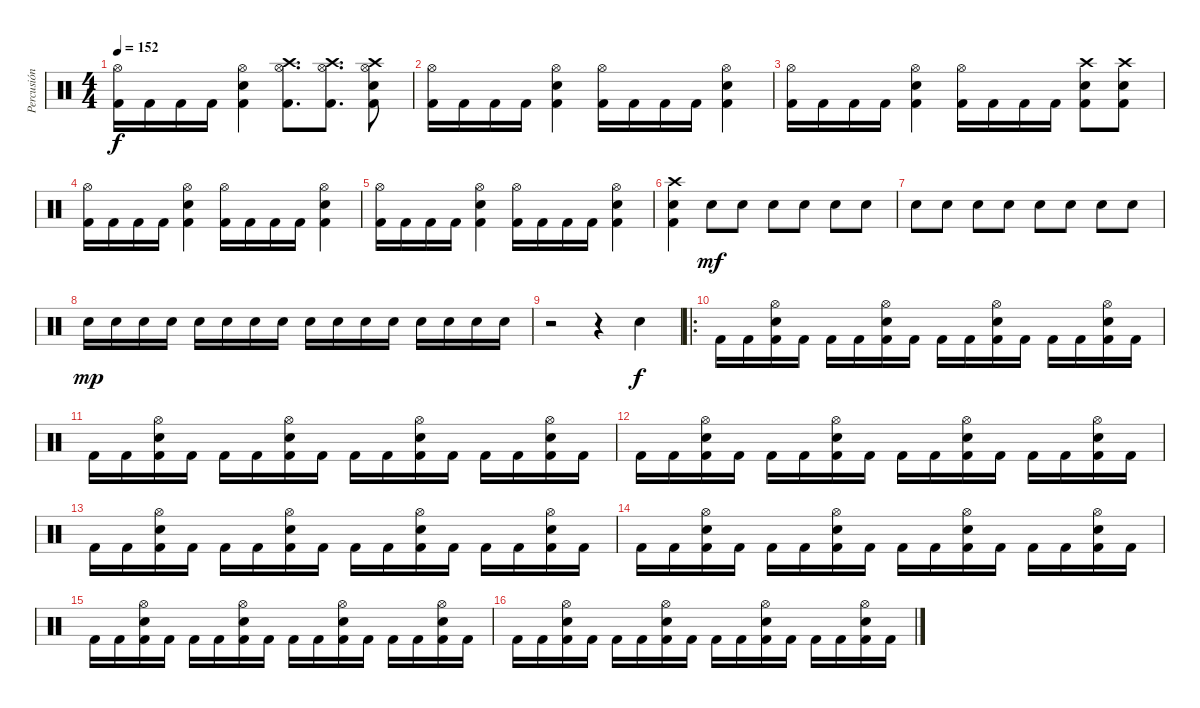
\track ("Percusión" "Percusión") {instrument percussion}
\staff {score}
\articulation defaults
\ts (4 4)
\tempo 152
\clef neutral
\ks c
("Hi-Hat (open)" "Kick (hit) 2").16{dy f} "Kick (hit) 2".16 "Kick (hit) 2".16 "Kick (hit) 2".16 ("Hi-Hat (open)" "Snare (hit) 2" "Kick (hit) 2").4 ("Crash high (hit)" "Hi-Hat (open)" "Kick (hit) 2").8{d} ("Crash high (hit)" "Hi-Hat (open)" "Kick (hit) 2").8{d} ("Crash high (hit)" "Hi-Hat (open)" "Snare (hit) 2" "Kick (hit) 2").8 |
("Hi-Hat (open)" "Kick (hit) 2").16 "Kick (hit) 2".16 "Kick (hit) 2".16 "Kick (hit) 2".16 ("Hi-Hat (open)" "Snare (hit) 2" "Kick (hit) 2").4 ("Hi-Hat (open)" "Kick (hit) 2").16 "Kick (hit) 2".16 "Kick (hit) 2".16 "Kick (hit) 2".16 ("Hi-Hat (open)" "Snare (hit) 2" "Kick (hit) 2").4 |
("Hi-Hat (open)" "Kick (hit) 2").16 "Kick (hit) 2".16 "Kick (hit) 2".16 "Kick (hit) 2".16 ("Hi-Hat (open)" "Snare (hit) 2" "Kick (hit) 2").4 ("Hi-Hat (open)" "Kick (hit) 2").16 "Kick (hit) 2".16 "Kick (hit) 2".16 "Kick (hit) 2".16 ("Crash high (hit)" "Snare (hit) 2" "Kick (hit) 2").8 ("Crash high (hit)" "Snare (hit) 2" "Kick (hit) 2").8 |
("Hi-Hat (open)" "Kick (hit) 2").16 "Kick (hit) 2".16 "Kick (hit) 2".16 "Kick (hit) 2".16 ("Hi-Hat (open)" "Snare (hit) 2" "Kick (hit) 2").4 ("Hi-Hat (open)" "Kick (hit) 2").16 "Kick (hit) 2".16 "Kick (hit) 2".16 "Kick (hit) 2".16 ("Hi-Hat (open)" "Snare (hit) 2" "Kick (hit) 2").4 |
("Hi-Hat (open)" "Kick (hit) 2").16 "Kick (hit) 2".16 "Kick (hit) 2".16 "Kick (hit) 2".16 ("Hi-Hat (open)" "Snare (hit) 2" "Kick (hit) 2").4 ("Hi-Hat (open)" "Kick (hit) 2").16 "Kick (hit) 2".16 "Kick (hit) 2".16 "Kick (hit) 2".16 ("Hi-Hat (open)" "Snare (hit) 2" "Kick (hit) 2").4 |
("Crash high (hit)" "Snare (hit) 2" "Kick (hit) 2").4 "Snare (hit) 2".8{dy mf} "Snare (hit) 2".8 "Snare (hit) 2".8 "Snare (hit) 2".8 "Snare (hit) 2".8 "Snare (hit) 2".8 |
"Snare (hit) 2".8 "Snare (hit) 2".8 "Snare (hit) 2".8 "Snare (hit) 2".8 "Snare (hit) 2".8 "Snare (hit) 2".8 "Snare (hit) 2".8 "Snare (hit) 2".8 |
"Snare (hit) 2".16{dy mp} "Snare (hit) 2".16 "Snare (hit) 2".16 "Snare (hit) 2".16 "Snare (hit) 2".16 "Snare (hit) 2".16 "Snare (hit) 2".16 "Snare (hit) 2".16 "Snare (hit) 2".16 "Snare (hit) 2".16 "Snare (hit) 2".16 "Snare (hit) 2".16 "Snare (hit) 2".16 "Snare (hit) 2".16 "Snare (hit) 2".16 "Snare (hit) 2".16 |
r.2 r.4 "Snare (hit) 2".4{dy f} |
\ro "Kick (hit) 2".16 "Kick (hit) 2".16
("Hi-Hat (open)" "Snare (hit) 2" "Kick (hit) 2").16 "Kick (hit) 2".16 "Kick (hit) 2".16 "Kick (hit) 2".16 ("Hi-Hat (open)" "Snare (hit) 2" "Kick (hit) 2").16 "Kick (hit) 2".16 "Kick (hit) 2".16 "Kick (hit) 2".16 ("Hi-Hat (open)" "Snare (hit) 2" "Kick (hit) 2").16 "Kick (hit) 2".16 "Kick (hit) 2".16 "Kick (hit) 2".16 ("Hi-Hat (open)" "Snare (hit) 2" "Kick (hit) 2").16 "Kick (hit) 2".16 |
"Kick (hit) 2".16 "Kick (hit) 2".16 ("Hi-Hat (open)" "Snare (hit) 2" "Kick (hit) 2").16 "Kick (hit) 2".16 "Kick (hit) 2".16 "Kick (hit) 2".16 ("Hi-Hat (open)" "Snare (hit) 2" "Kick (hit) 2").16 "Kick (hit) 2".16 "Kick (hit) 2".16 "Kick (hit) 2".16 ("Hi-Hat (open)" "Snare (hit) 2" "Kick (hit) 2").16 "Kick (hit) 2".16 "Kick (hit) 2".16 "Kick (hit) 2".16 ("Hi-Hat (open)" "Snare (hit) 2" "Kick (hit) 2").16 "Kick (hit) 2".16 |
"Kick (hit) 2".16 "Kick (hit) 2".16 ("Hi-Hat (open)" "Snare (hit) 2" "Kick (hit) 2").16 "Kick (hit) 2".16 "Kick (hit) 2".16 "Kick (hit) 2".16 ("Hi-Hat (open)" "Snare (hit) 2" "Kick (hit) 2").16 "Kick (hit) 2".16 "Kick (hit) 2".16 "Kick (hit) 2".16 ("Hi-Hat (open)" "Snare (hit) 2" "Kick (hit) 2").16 "Kick (hit) 2".16 "Kick (hit) 2".16 "Kick (hit) 2".16 ("Hi-Hat (open)" "Snare (hit) 2" "Kick (hit) 2").16 "Kick (hit) 2".16 |
"Kick (hit) 2".16 "Kick (hit) 2".16 ("Hi-Hat (open)" "Snare (hit) 2" "Kick (hit) 2").16 "Kick (hit) 2".16 "Kick (hit) 2".16 "Kick (hit) 2".16 ("Hi-Hat (open)" "Snare (hit) 2" "Kick (hit) 2").16 "Kick (hit) 2".16 "Kick (hit) 2".16 "Kick (hit) 2".16 ("Hi-Hat (open)" "Snare (hit) 2" "Kick (hit) 2").16 "Kick (hit) 2".16 "Kick (hit) 2".16 "Kick (hit) 2".16 ("Hi-Hat (open)" "Snare (hit) 2" "Kick (hit) 2").16 "Kick (hit) 2".16 |
"Kick (hit) 2".16 "Kick (hit) 2".16 ("Hi-Hat (open)" "Snare (hit) 2" "Kick (hit) 2").16 "Kick (hit) 2".16 "Kick (hit) 2".16 "Kick (hit) 2".16 ("Hi-Hat (open)" "Snare (hit) 2" "Kick (hit) 2").16 "Kick (hit) 2".16 "Kick (hit) 2".16 "Kick (hit) 2".16 ("Hi-Hat (open)" "Snare (hit) 2" "Kick (hit) 2").16 "Kick (hit) 2".16 "Kick (hit) 2".16 "Kick (hit) 2".16 ("Hi-Hat (open)" "Snare (hit) 2" "Kick (hit) 2").16 "Kick (hit) 2".16 |
"Kick (hit) 2".16 "Kick (hit) 2".16 ("Hi-Hat (open)" "Snare (hit) 2" "Kick (hit) 2").16 "Kick (hit) 2".16 "Kick (hit) 2".16 "Kick (hit) 2".16 ("Hi-Hat (open)" "Snare (hit) 2" "Kick (hit) 2").16 "Kick (hit) 2".16 "Kick (hit) 2".16 "Kick (hit) 2".16 ("Hi-Hat (open)" "Snare (hit) 2" "Kick (hit) 2").16 "Kick (hit) 2".16 "Kick (hit) 2".16 "Kick (hit) 2".16 ("Hi-Hat (open)" "Snare (hit) 2" "Kick (hit) 2").16 "Kick (hit) 2".16 |
"Kick (hit) 2".16 "Kick (hit) 2".16 ("Hi-Hat (open)" "Snare (hit) 2" "Kick (hit) 2").16 "Kick (hit) 2".16 "Kick (hit) 2".16 "Kick (hit) 2".16 ("Hi-Hat (open)" "Snare (hit) 2" "Kick (hit) 2").16 "Kick (hit) 2".16 "Kick (hit) 2".16 "Kick (hit) 2".16 ("Hi-Hat (open)" "Snare (hit) 2" "Kick (hit) 2").16 "Kick (hit) 2".16 "Kick (hit) 2".16 "Kick (hit) 2".16 ("Hi-Hat (open)" "Snare (hit) 2" "Kick (hit) 2").16 "Kick (hit) 2".16
